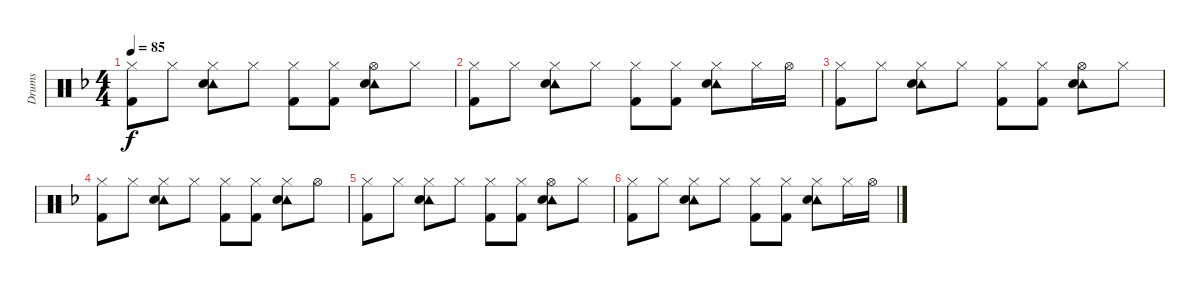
\track ("Drums" "Drums") {instrument percussion}
\staff
\articulation defaults
\ts (4 4)
\tempo 85
\clef neutral
\ks f
("Hi-Hat (closed)" "Kick (hit) 2").8{dy f} "Hi-Hat (closed)".8 ("Tambourine (hit)" "Hi-Hat (closed)" "Snare (hit) 2").8 "Hi-Hat (closed)".8 ("Hi-Hat (closed)" "Kick (hit) 2").8 ("Hi-Hat (closed)" "Kick (hit) 2").8 ("Tambourine (hit)" "Hi-Hat (open)" "Snare (hit) 2").8 "Hi-Hat (closed)".8 |
("Hi-Hat (closed)" "Kick (hit) 2").8 "Hi-Hat (closed)".8 ("Tambourine (hit)" "Hi-Hat (closed)" "Snare (hit) 2").8 "Hi-Hat (closed)".8 ("Hi-Hat (closed)" "Kick (hit) 2").8 ("Hi-Hat (closed)" "Kick (hit) 2").8 ("Tambourine (hit)" "Hi-Hat (closed)" "Snare (hit) 2").8 "Hi-Hat (closed)".16 "Hi-Hat (open)".16 |
("Hi-Hat (closed)" "Kick (hit) 2").8{volume 2} "Hi-Hat (closed)".8 ("Tambourine (hit)" "Hi-Hat (closed)" "Snare (hit) 2").8 "Hi-Hat (closed)".8 ("Hi-Hat (closed)" "Kick (hit) 2").8 ("Hi-Hat (closed)" "Kick (hit) 2").8 ("Tambourine (hit)" "Hi-Hat (open)" "Snare (hit) 2").8 "Hi-Hat (closed)".8 |
("Hi-Hat (closed)" "Kick (hit) 2").8 "Hi-Hat (closed)".8 ("Tambourine (hit)" "Hi-Hat (closed)" "Snare (hit) 2").8 "Hi-Hat (closed)".8 ("Hi-Hat (closed)" "Kick (hit) 2").8 ("Hi-Hat (closed)" "Kick (hit) 2").8 ("Tambourine (hit)" "Hi-Hat (closed)" "Snare (hit) 2").8 "Hi-Hat (open)".8 |
("Hi-Hat (closed)" "Kick (hit) 2").8 "Hi-Hat (closed)".8 ("Tambourine (hit)" "Hi-Hat (closed)" "Snare (hit) 2").8 "Hi-Hat (closed)".8 ("Hi-Hat (closed)" "Kick (hit) 2").8 ("Hi-Hat (closed)" "Kick (hit) 2").8 ("Tambourine (hit)" "Hi-Hat (open)" "Snare (hit) 2").8 "Hi-Hat (closed)".8 |
("Hi-Hat (closed)" "Kick (hit) 2").8 "Hi-Hat (closed)".8 ("Tambourine (hit)" "Hi-Hat (closed)" "Snare (hit) 2").8 "Hi-Hat (closed)".8 ("Hi-Hat (closed)" "Kick (hit) 2").8 ("Hi-Hat (closed)" "Kick (hit) 2").8 ("Tambourine (hit)" "Hi-Hat (closed)" "Snare (hit) 2").8 "Hi-Hat (closed)".16 "Hi-Hat (open)".16
